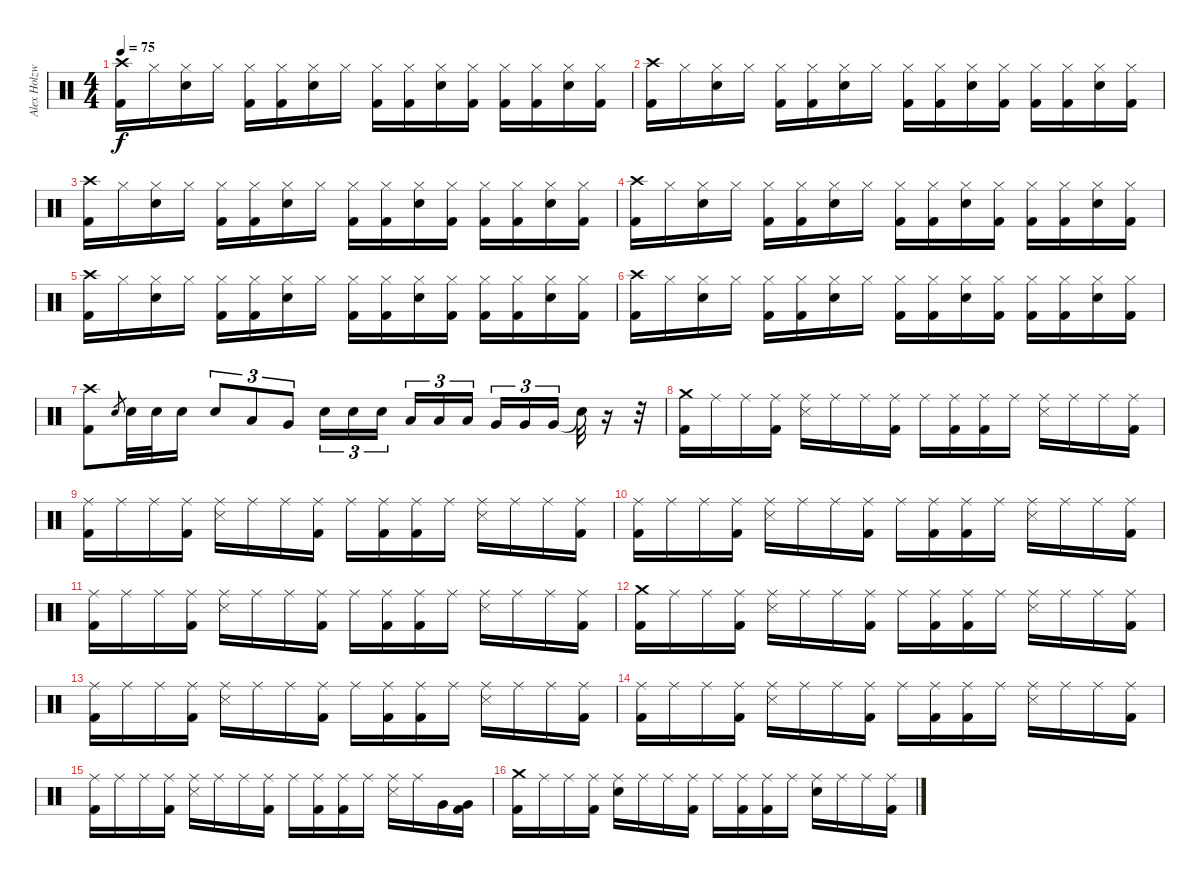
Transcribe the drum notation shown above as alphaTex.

\track ("Alex Holzwarth (Drums)" "Alex Holzw") {instrument percussion}
\staff {score}
\articulation defaults
\ts (4 4)
\tempo 75
\clef neutral
\ks c
("Crash high (hit)" "Kick (hit) 2").16{dy f} "Hi-Hat (closed)".16 ("Hi-Hat (closed)" "Electric Snare (hit)").16 "Hi-Hat (closed)".16 ("Hi-Hat (closed)" "Kick (hit) 2").16 ("Hi-Hat (closed)" "Kick (hit) 2").16 ("Hi-Hat (closed)" "Electric Snare (hit)").16 "Hi-Hat (closed)".16 ("Hi-Hat (closed)" "Kick (hit) 2").16 ("Hi-Hat (closed)" "Kick (hit) 2").16 ("Hi-Hat (closed)" "Electric Snare (hit)").16 ("Hi-Hat (closed)" "Kick (hit) 2").16 ("Hi-Hat (closed)" "Kick (hit) 2").16 ("Hi-Hat (closed)" "Kick (hit) 2").16 ("Hi-Hat (closed)" "Electric Snare (hit)").16 ("Hi-Hat (closed)" "Kick (hit) 2").16 |
("Crash high (hit)" "Kick (hit) 2").16 "Hi-Hat (closed)".16 ("Hi-Hat (closed)" "Electric Snare (hit)").16 "Hi-Hat (closed)".16 ("Hi-Hat (closed)" "Kick (hit) 2").16 ("Hi-Hat (closed)" "Kick (hit) 2").16 ("Hi-Hat (closed)" "Electric Snare (hit)").16 "Hi-Hat (closed)".16 ("Hi-Hat (closed)" "Kick (hit) 2").16 ("Hi-Hat (closed)" "Kick (hit) 2").16 ("Hi-Hat (closed)" "Electric Snare (hit)").16 ("Hi-Hat (closed)" "Kick (hit) 2").16 ("Hi-Hat (closed)" "Kick (hit) 2").16 ("Hi-Hat (closed)" "Kick (hit) 2").16 ("Hi-Hat (closed)" "Electric Snare (hit)").16 ("Hi-Hat (closed)" "Kick (hit) 2").16 |
("Crash high (hit)" "Kick (hit) 2").16 "Hi-Hat (closed)".16 ("Hi-Hat (closed)" "Electric Snare (hit)").16 "Hi-Hat (closed)".16 ("Hi-Hat (closed)" "Kick (hit) 2").16 ("Hi-Hat (closed)" "Kick (hit) 2").16 ("Hi-Hat (closed)" "Electric Snare (hit)").16 "Hi-Hat (closed)".16 ("Hi-Hat (closed)" "Kick (hit) 2").16 ("Hi-Hat (closed)" "Kick (hit) 2").16 ("Hi-Hat (closed)" "Electric Snare (hit)").16 ("Hi-Hat (closed)" "Kick (hit) 2").16 ("Hi-Hat (closed)" "Kick (hit) 2").16 ("Hi-Hat (closed)" "Kick (hit) 2").16 ("Hi-Hat (closed)" "Electric Snare (hit)").16 ("Hi-Hat (closed)" "Kick (hit) 2").16 |
("Crash high (hit)" "Kick (hit) 2").16 "Hi-Hat (closed)".16 ("Hi-Hat (closed)" "Electric Snare (hit)").16 "Hi-Hat (closed)".16 ("Hi-Hat (closed)" "Kick (hit) 2").16 ("Hi-Hat (closed)" "Kick (hit) 2").16 ("Hi-Hat (closed)" "Electric Snare (hit)").16 "Hi-Hat (closed)".16 ("Hi-Hat (closed)" "Kick (hit) 2").16 ("Hi-Hat (closed)" "Kick (hit) 2").16 ("Hi-Hat (closed)" "Electric Snare (hit)").16 ("Hi-Hat (closed)" "Kick (hit) 2").16 ("Hi-Hat (closed)" "Kick (hit) 2").16 ("Hi-Hat (closed)" "Kick (hit) 2").16 ("Hi-Hat (closed)" "Electric Snare (hit)").16 ("Hi-Hat (closed)" "Kick (hit) 2").16 |
("Crash high (hit)" "Kick (hit) 2").16 "Hi-Hat (closed)".16 ("Hi-Hat (closed)" "Electric Snare (hit)").16 "Hi-Hat (closed)".16 ("Hi-Hat (closed)" "Kick (hit) 2").16 ("Hi-Hat (closed)" "Kick (hit) 2").16 ("Hi-Hat (closed)" "Electric Snare (hit)").16 "Hi-Hat (closed)".16 ("Hi-Hat (closed)" "Kick (hit) 2").16 ("Hi-Hat (closed)" "Kick (hit) 2").16 ("Hi-Hat (closed)" "Electric Snare (hit)").16 ("Hi-Hat (closed)" "Kick (hit) 2").16 ("Hi-Hat (closed)" "Kick (hit) 2").16 ("Hi-Hat (closed)" "Kick (hit) 2").16 ("Hi-Hat (closed)" "Electric Snare (hit)").16 ("Hi-Hat (closed)" "Kick (hit) 2").16 |
("Crash high (hit)" "Kick (hit) 2").16 "Hi-Hat (closed)".16 ("Hi-Hat (closed)" "Electric Snare (hit)").16 "Hi-Hat (closed)".16 ("Hi-Hat (closed)" "Kick (hit) 2").16 ("Hi-Hat (closed)" "Kick (hit) 2").16 ("Hi-Hat (closed)" "Electric Snare (hit)").16 "Hi-Hat (closed)".16 ("Hi-Hat (closed)" "Kick (hit) 2").16 ("Hi-Hat (closed)" "Kick (hit) 2").16 ("Hi-Hat (closed)" "Electric Snare (hit)").16 ("Hi-Hat (closed)" "Kick (hit) 2").16 ("Hi-Hat (closed)" "Kick (hit) 2").16 ("Hi-Hat (closed)" "Kick (hit) 2").16 ("Hi-Hat (closed)" "Electric Snare (hit)").16 ("Hi-Hat (closed)" "Kick (hit) 2").16 |
("Crash high (hit)" "Kick (hit) 2").8 "Electric Snare (hit)".8{gr} "Electric Snare (hit)".32 "Electric Snare (hit)".32 "Electric Snare (hit)".16 "Electric Snare (hit)".8{tu (3 2)} "Low Tom (hit)".8{tu (3 2)} "Very Low Tom (hit)".8{tu (3 2)} "Electric Snare (hit)".16{tu (3 2)} "Electric Snare (hit)".16{tu (3 2)} "Electric Snare (hit)".16{tu (3 2) beam splitsecondary} "Low Tom (hit)".16{tu (3 2)} "Low Tom (hit)".16{tu (3 2)} "Low Tom (hit)".16{tu (3 2)} "Very Low Tom (hit)".16{tu (3 2)} "Very Low Tom (hit)".16{tu (3 2)} "Very Low Tom (hit)".16{tu (3 2) beam splitsecondary} "Snare (hit)"{t}.32 r.16 r.32 |
("Crash medium (hit)" "Kick (hit) 2").16 "Ride (middle)".16 "Ride (middle)".16 ("Ride (middle)" "Kick (hit) 2").16 ("Ride (middle)" "Snare (side stick) 3").16 "Ride (middle)".16 "Ride (middle)".16 ("Ride (middle)" "Kick (hit) 2").16 "Ride (middle)".16 ("Ride (middle)" "Kick (hit) 2").16 ("Ride (middle)" "Kick (hit) 2").16 "Ride (middle)".16 ("Ride (middle)" "Snare (side stick) 3").16 "Ride (middle)".16 "Ride (middle)".16 ("Ride (middle)" "Kick (hit) 2").16 |
("Ride (middle)" "Kick (hit) 2").16 "Ride (middle)".16 "Ride (middle)".16 ("Ride (middle)" "Kick (hit) 2").16 ("Ride (middle)" "Snare (side stick) 3").16 "Ride (middle)".16 "Ride (middle)".16 ("Ride (middle)" "Kick (hit) 2").16 "Ride (middle)".16 ("Ride (middle)" "Kick (hit) 2").16 ("Ride (middle)" "Kick (hit) 2").16 "Ride (middle)".16 ("Ride (middle)" "Snare (side stick) 3").16 "Ride (middle)".16 "Ride (middle)".16 ("Ride (middle)" "Kick (hit) 2").16 |
("Ride (middle)" "Kick (hit) 2").16 "Ride (middle)".16 "Ride (middle)".16 ("Ride (middle)" "Kick (hit) 2").16 ("Ride (middle)" "Snare (side stick) 3").16 "Ride (middle)".16 "Ride (middle)".16 ("Ride (middle)" "Kick (hit) 2").16 "Ride (middle)".16 ("Ride (middle)" "Kick (hit) 2").16 ("Ride (middle)" "Kick (hit) 2").16 "Ride (middle)".16 ("Ride (middle)" "Snare (side stick) 3").16 "Ride (middle)".16 "Ride (middle)".16 ("Ride (middle)" "Kick (hit) 2").16 |
("Ride (middle)" "Kick (hit) 2").16 "Ride (middle)".16 "Ride (middle)".16 ("Ride (middle)" "Kick (hit) 2").16 ("Ride (middle)" "Snare (side stick) 3").16 "Ride (middle)".16 "Ride (middle)".16 ("Ride (middle)" "Kick (hit) 2").16 "Ride (middle)".16 ("Ride (middle)" "Kick (hit) 2").16 ("Ride (middle)" "Kick (hit) 2").16 "Ride (middle)".16 ("Ride (middle)" "Snare (side stick) 3").16 "Ride (middle)".16 "Ride (middle)".16 ("Ride (middle)" "Kick (hit) 2").16 |
("Crash medium (hit)" "Kick (hit) 2").16 "Ride (middle)".16 "Ride (middle)".16 ("Ride (middle)" "Kick (hit) 2").16 ("Ride (middle)" "Snare (side stick) 3").16 "Ride (middle)".16 "Ride (middle)".16 ("Ride (middle)" "Kick (hit) 2").16 "Ride (middle)".16 ("Ride (middle)" "Kick (hit) 2").16 ("Ride (middle)" "Kick (hit) 2").16 "Ride (middle)".16 ("Ride (middle)" "Snare (side stick) 3").16 "Ride (middle)".16 "Ride (middle)".16 ("Ride (middle)" "Kick (hit) 2").16 |
("Ride (middle)" "Kick (hit) 2").16 "Ride (middle)".16 "Ride (middle)".16 ("Ride (middle)" "Kick (hit) 2").16 ("Ride (middle)" "Snare (side stick) 3").16 "Ride (middle)".16 "Ride (middle)".16 ("Ride (middle)" "Kick (hit) 2").16 "Ride (middle)".16 ("Ride (middle)" "Kick (hit) 2").16 ("Ride (middle)" "Kick (hit) 2").16 "Ride (middle)".16 ("Ride (middle)" "Snare (side stick) 3").16 "Ride (middle)".16 "Ride (middle)".16 ("Ride (middle)" "Kick (hit) 2").16 |
("Ride (middle)" "Kick (hit) 2").16 "Ride (middle)".16 "Ride (middle)".16 ("Ride (middle)" "Kick (hit) 2").16 ("Ride (middle)" "Snare (side stick) 3").16 "Ride (middle)".16 "Ride (middle)".16 ("Ride (middle)" "Kick (hit) 2").16 "Ride (middle)".16 ("Ride (middle)" "Kick (hit) 2").16 ("Ride (middle)" "Kick (hit) 2").16 "Ride (middle)".16 ("Ride (middle)" "Snare (side stick) 3").16 "Ride (middle)".16 "Ride (middle)".16 ("Ride (middle)" "Kick (hit) 2").16 |
("Ride (middle)" "Kick (hit) 2").16 "Ride (middle)".16 "Ride (middle)".16 ("Ride (middle)" "Kick (hit) 2").16 ("Ride (middle)" "Snare (side stick) 3").16 "Ride (middle)".16 "Ride (middle)".16 ("Ride (middle)" "Kick (hit) 2").16 "Ride (middle)".16 ("Ride (middle)" "Kick (hit) 2").16 ("Ride (middle)" "Kick (hit) 2").16 "Ride (middle)".16 ("Ride (middle)" "Snare (side stick) 3").16 "Ride (middle)".16 "Very Low Tom (hit)".16 ("Very Low Tom (hit)" "Kick (hit) 2").16 |
("Crash medium (hit)" "Kick (hit) 2").16 "Ride (middle)".16 "Ride (middle)".16 ("Ride (middle)" "Kick (hit) 2").16 ("Ride (middle)" "Snare (hit) 2").16 "Ride (middle)".16 "Ride (middle)".16 ("Ride (middle)" "Kick (hit) 2").16 "Ride (middle)".16 ("Ride (middle)" "Kick (hit) 2").16 ("Ride (middle)" "Kick (hit) 2").16 "Ride (middle)".16 ("Ride (middle)" "Snare (hit) 2").16 "Ride (middle)".16 "Ride (middle)".16 ("Ride (middle)" "Kick (hit) 2").16
